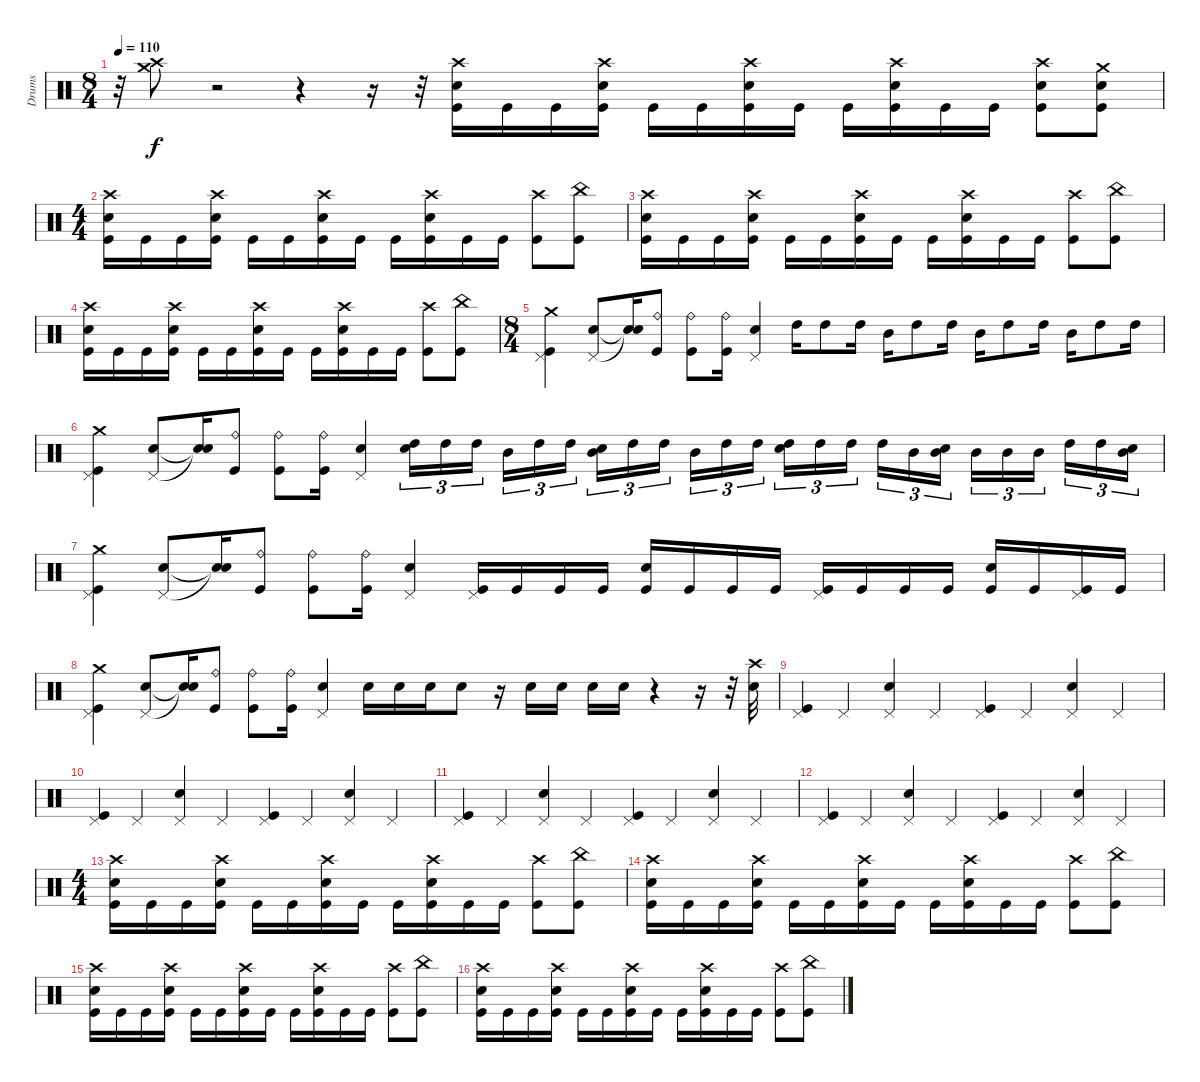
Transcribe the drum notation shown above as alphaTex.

\track ("Drums" "Drums") {instrument percussion}
\staff {score}
\articulation defaults
\ts (8 4)
\tempo 110
\clef neutral
\ks c
r.32{dy f} ("Crash high (hit)" "Crash medium (hit)").8 r.2 r.4 r.16 r.32 ("Crash high (hit)" "Electric Snare (hit)" "Kick (hit)").16 "Kick (hit)".16 "Kick (hit)".16 ("Crash high (hit)" "Electric Snare (hit)" "Kick (hit)").16 "Kick (hit)".16 "Kick (hit)".16 ("Crash high (hit)" "Electric Snare (hit)" "Kick (hit)").16 "Kick (hit)".16 "Kick (hit)".16 ("Crash high (hit)" "Electric Snare (hit)" "Kick (hit)").16 "Kick (hit)".16 "Kick (hit)".16 ("Crash high (hit)" "Electric Snare (hit)" "Kick (hit)").8 ("Crash medium (hit)" "Electric Snare (hit)" "Kick (hit)").8 |
\ts (4 4)
("Crash high (hit)" "Electric Snare (hit)" "Kick (hit)").16 "Kick (hit)".16 "Kick (hit)".16 ("Crash high (hit)" "Electric Snare (hit)" "Kick (hit)").16 "Kick (hit)".16 "Kick (hit)".16 ("Crash high (hit)" "Electric Snare (hit)" "Kick (hit)").16 "Kick (hit)".16 "Kick (hit)".16 ("Crash high (hit)" "Electric Snare (hit)" "Kick (hit)").16 "Kick (hit)".16 "Kick (hit)".16 ("Crash high (hit)" "Kick (hit)").8 ("China (hit)" "Kick (hit)").8 |
("Crash high (hit)" "Electric Snare (hit)" "Kick (hit)").16 "Kick (hit)".16 "Kick (hit)".16 ("Crash high (hit)" "Electric Snare (hit)" "Kick (hit)").16 "Kick (hit)".16 "Kick (hit)".16 ("Crash high (hit)" "Electric Snare (hit)" "Kick (hit)").16 "Kick (hit)".16 "Kick (hit)".16 ("Crash high (hit)" "Electric Snare (hit)" "Kick (hit)").16 "Kick (hit)".16 "Kick (hit)".16 ("Crash high (hit)" "Kick (hit)").8 ("China (hit)" "Kick (hit)").8 |
("Crash high (hit)" "Electric Snare (hit)" "Kick (hit)").16 "Kick (hit)".16 "Kick (hit)".16 ("Crash high (hit)" "Electric Snare (hit)" "Kick (hit)").16 "Kick (hit)".16 "Kick (hit)".16 ("Crash high (hit)" "Electric Snare (hit)" "Kick (hit)").16 "Kick (hit)".16 "Kick (hit)".16 ("Crash high (hit)" "Electric Snare (hit)" "Kick (hit)").16 "Kick (hit)".16 "Kick (hit)".16 ("Crash high (hit)" "Kick (hit)").8 ("China (hit)" "Kick (hit)").8 |
\ts (8 4)
("Crash medium (hit)" "Pedal Hi-Hat (hit)" "Kick (hit)").4 ("Pedal Hi-Hat (hit)" "Electric Snare (hit)").8 ("Snare (hit)"{t} "Snare (hit)"{t}).16 ("Kick (hit)" "Ride (bell)").8 ("Ride (bell)" "Kick (hit)").8 ("Ride (bell)" "Kick (hit)").16 ("Pedal Hi-Hat (hit)" "Electric Snare (hit)").4 "High Tom (hit)".16 "High Tom (hit)".8 "High Tom (hit)".16 "Mid Tom (hit)".16 "High Tom (hit)".8 "High Tom (hit)".16 "Mid Tom (hit)".16 "High Tom (hit)".8 "High Tom (hit)".16 "Mid Tom (hit)".16 "High Tom (hit)".8 "High Tom (hit)".16 |
("Crash medium (hit)" "Pedal Hi-Hat (hit)" "Kick (hit)").4 ("Pedal Hi-Hat (hit)" "Electric Snare (hit)").8 ("Snare (hit)"{t} "Snare (hit)"{t}).16 ("Kick (hit)" "Ride (bell)").8 ("Ride (bell)" "Kick (hit)").8 ("Ride (bell)" "Kick (hit)").16 ("Pedal Hi-Hat (hit)" "Electric Snare (hit)").4 ("Electric Snare (hit)" "High Tom (hit)").16{tu (3 2)} "High Tom (hit)".16{tu (3 2)} "High Tom (hit)".16{tu (3 2)} "Mid Tom (hit)".16{tu (3 2)} "High Tom (hit)".16{tu (3 2)} "High Tom (hit)".16{tu (3 2)} ("Electric Snare (hit)" "Mid Tom (hit)").16{tu (3 2)} "High Tom (hit)".16{tu (3 2)} "High Tom (hit)".16{tu (3 2)} "Mid Tom (hit)".16{tu (3 2)} "High Tom (hit)".16{tu (3 2)} "High Tom (hit)".16{tu (3 2)} ("Electric Snare (hit)" "High Tom (hit)").16{tu (3 2)} "High Tom (hit)".16{tu (3 2)} "High Tom (hit)".16{tu (3 2)} "High Tom (hit)".16{tu (3 2)} "Mid Tom (hit)".16{tu (3 2)} ("Electric Snare (hit)" "Mid Tom (hit)").16{tu (3 2)} "Mid Tom (hit)".16{tu (3 2)} "Mid Tom (hit)".16{tu (3 2)} "Mid Tom (hit)".16{tu (3 2)} "High Tom (hit)".16{tu (3 2)} "High Tom (hit)".16{tu (3 2)} ("Electric Snare (hit)" "Mid Tom (hit)").16{tu (3 2)} |
("Crash medium (hit)" "Pedal Hi-Hat (hit)" "Kick (hit)").4 ("Pedal Hi-Hat (hit)" "Electric Snare (hit)").8 ("Snare (hit)"{t} "Snare (hit)"{t}).16 ("Kick (hit)" "Ride (bell)").8 ("Ride (bell)" "Kick (hit)").8 ("Ride (bell)" "Kick (hit)").16 ("Pedal Hi-Hat (hit)" "Electric Snare (hit)").4 ("Pedal Hi-Hat (hit)" "Kick (hit)").16 "Kick (hit)".16 "Kick (hit)".16 "Kick (hit)".16 ("Electric Snare (hit)" "Kick (hit)").16 "Kick (hit)".16 "Kick (hit)".16 "Kick (hit)".16 ("Pedal Hi-Hat (hit)" "Kick (hit)").16 "Kick (hit)".16 "Kick (hit)".16 "Kick (hit)".16 ("Electric Snare (hit)" "Kick (hit)").16 "Kick (hit)".16 ("Pedal Hi-Hat (hit)" "Kick (hit)").16 "Kick (hit)".16 |
("Crash medium (hit)" "Pedal Hi-Hat (hit)" "Kick (hit)").4 ("Pedal Hi-Hat (hit)" "Electric Snare (hit)").8 ("Snare (hit)"{t} "Snare (hit)"{t}).16 ("Kick (hit)" "Ride (bell)").8 ("Ride (bell)" "Kick (hit)").8 ("Ride (bell)" "Kick (hit)").16 ("Pedal Hi-Hat (hit)" "Electric Snare (hit)").4 "Electric Snare (hit)".16 "Electric Snare (hit)".16 "Electric Snare (hit)".16 "Electric Snare (hit)".8 r.16 "Electric Snare (hit)".16 "Electric Snare (hit)".16 "Electric Snare (hit)".16 "Electric Snare (hit)".16 r.4 r.16 r.32 ("Crash high (hit)" "Electric Snare (hit)").32 |
("Pedal Hi-Hat (hit)" "Kick (hit)").4 "Pedal Hi-Hat (hit)".4 ("Pedal Hi-Hat (hit)" "Electric Snare (hit)").4 "Pedal Hi-Hat (hit)".4 ("Pedal Hi-Hat (hit)" "Kick (hit)").4 "Pedal Hi-Hat (hit)".4 ("Pedal Hi-Hat (hit)" "Electric Snare (hit)").4 "Pedal Hi-Hat (hit)".4 |
("Pedal Hi-Hat (hit)" "Kick (hit)").4 "Pedal Hi-Hat (hit)".4 ("Pedal Hi-Hat (hit)" "Electric Snare (hit)").4 "Pedal Hi-Hat (hit)".4 ("Pedal Hi-Hat (hit)" "Kick (hit)").4 "Pedal Hi-Hat (hit)".4 ("Pedal Hi-Hat (hit)" "Electric Snare (hit)").4 "Pedal Hi-Hat (hit)".4 |
("Pedal Hi-Hat (hit)" "Kick (hit)").4 "Pedal Hi-Hat (hit)".4 ("Pedal Hi-Hat (hit)" "Electric Snare (hit)").4 "Pedal Hi-Hat (hit)".4 ("Pedal Hi-Hat (hit)" "Kick (hit)").4 "Pedal Hi-Hat (hit)".4 ("Pedal Hi-Hat (hit)" "Electric Snare (hit)").4 "Pedal Hi-Hat (hit)".4 |
("Pedal Hi-Hat (hit)" "Kick (hit)").4 "Pedal Hi-Hat (hit)".4 ("Pedal Hi-Hat (hit)" "Electric Snare (hit)").4 "Pedal Hi-Hat (hit)".4 ("Pedal Hi-Hat (hit)" "Kick (hit)").4 "Pedal Hi-Hat (hit)".4 ("Pedal Hi-Hat (hit)" "Electric Snare (hit)").4 "Pedal Hi-Hat (hit)".4 |
\ts (4 4)
("Crash high (hit)" "Electric Snare (hit)" "Kick (hit)").16 "Kick (hit)".16 "Kick (hit)".16 ("Crash high (hit)" "Electric Snare (hit)" "Kick (hit)").16 "Kick (hit)".16 "Kick (hit)".16 ("Crash high (hit)" "Electric Snare (hit)" "Kick (hit)").16 "Kick (hit)".16 "Kick (hit)".16 ("Crash high (hit)" "Electric Snare (hit)" "Kick (hit)").16 "Kick (hit)".16 "Kick (hit)".16 ("Crash high (hit)" "Kick (hit)").8 ("China (hit)" "Kick (hit)").8 |
("Crash high (hit)" "Electric Snare (hit)" "Kick (hit)").16 "Kick (hit)".16 "Kick (hit)".16 ("Crash high (hit)" "Electric Snare (hit)" "Kick (hit)").16 "Kick (hit)".16 "Kick (hit)".16 ("Crash high (hit)" "Electric Snare (hit)" "Kick (hit)").16 "Kick (hit)".16 "Kick (hit)".16 ("Crash high (hit)" "Electric Snare (hit)" "Kick (hit)").16 "Kick (hit)".16 "Kick (hit)".16 ("Crash high (hit)" "Kick (hit)").8 ("China (hit)" "Kick (hit)").8 |
("Crash high (hit)" "Electric Snare (hit)" "Kick (hit)").16 "Kick (hit)".16 "Kick (hit)".16 ("Crash high (hit)" "Electric Snare (hit)" "Kick (hit)").16 "Kick (hit)".16 "Kick (hit)".16 ("Crash high (hit)" "Electric Snare (hit)" "Kick (hit)").16 "Kick (hit)".16 "Kick (hit)".16 ("Crash high (hit)" "Electric Snare (hit)" "Kick (hit)").16 "Kick (hit)".16 "Kick (hit)".16 ("Crash high (hit)" "Kick (hit)").8 ("China (hit)" "Kick (hit)").8 |
("Crash high (hit)" "Electric Snare (hit)" "Kick (hit)").16 "Kick (hit)".16 "Kick (hit)".16 ("Crash high (hit)" "Electric Snare (hit)" "Kick (hit)").16 "Kick (hit)".16 "Kick (hit)".16 ("Crash high (hit)" "Electric Snare (hit)" "Kick (hit)").16 "Kick (hit)".16 "Kick (hit)".16 ("Crash high (hit)" "Electric Snare (hit)" "Kick (hit)").16 "Kick (hit)".16 "Kick (hit)".16 ("Crash high (hit)" "Kick (hit)").8 ("China (hit)" "Kick (hit)").8
